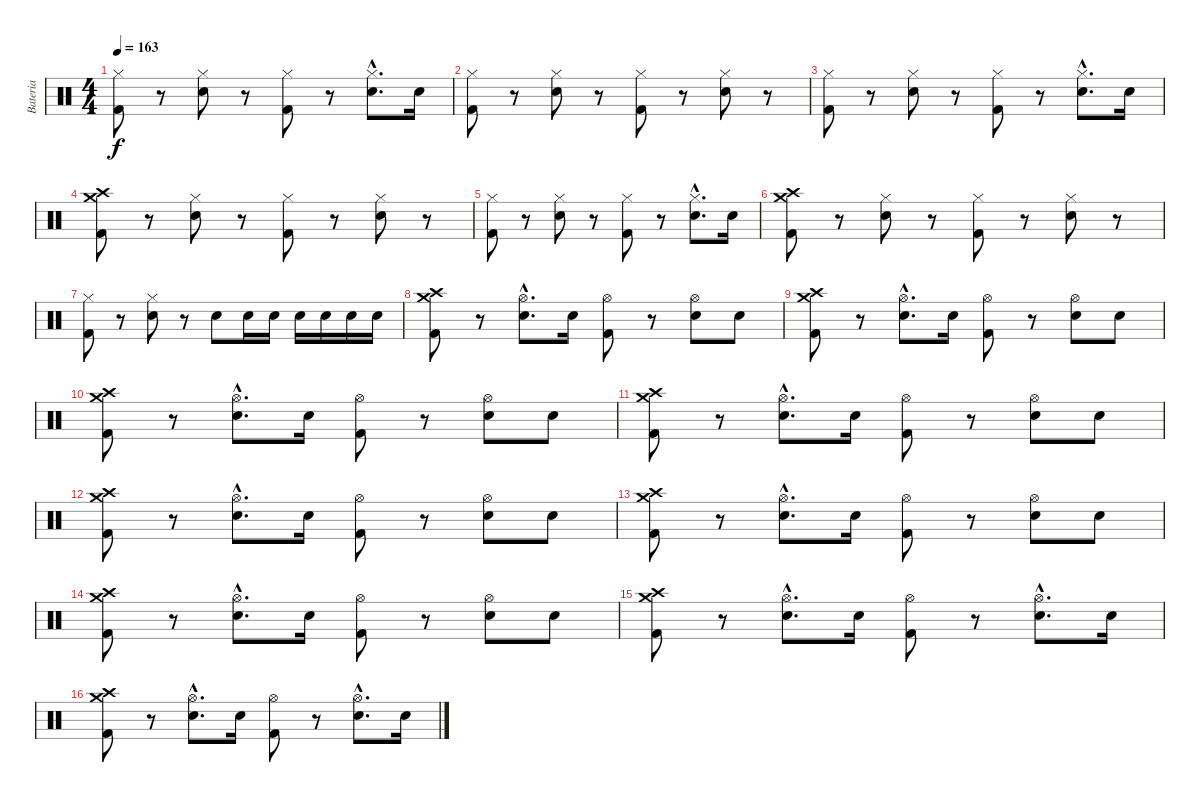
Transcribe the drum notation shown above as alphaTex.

\track ("Bateria" "Bateria") {instrument percussion}
\staff {score}
\articulation defaults
\ts (4 4)
\tempo 163
\clef neutral
\ks c
("Hi-Hat (closed)" "Kick (hit) 2").8{dy f} r.8 ("Hi-Hat (closed)" "Snare (hit) 2").8 r.8 ("Hi-Hat (closed)" "Kick (hit) 2").8 r.8 ("Hi-Hat (closed)"{hac} "Snare (hit) 2"{hac}).8{d} "Snare (hit) 2".16 |
("Hi-Hat (closed)" "Kick (hit) 2").8 r.8 ("Hi-Hat (closed)" "Snare (hit) 2").8 r.8 ("Hi-Hat (closed)" "Kick (hit) 2").8 r.8 ("Hi-Hat (closed)" "Snare (hit) 2").8 r.8 |
("Hi-Hat (closed)" "Kick (hit) 2").8 r.8 ("Hi-Hat (closed)" "Snare (hit) 2").8 r.8 ("Hi-Hat (closed)" "Kick (hit) 2").8 r.8 ("Hi-Hat (closed)"{hac} "Snare (hit) 2"{hac}).8{d} "Snare (hit) 2".16 |
("Crash high (hit)" "Crash medium (hit)" "Kick (hit) 2").8 r.8 ("Hi-Hat (closed)" "Snare (hit) 2").8 r.8 ("Hi-Hat (closed)" "Kick (hit) 2").8 r.8 ("Hi-Hat (closed)" "Snare (hit) 2").8 r.8 |
("Hi-Hat (closed)" "Kick (hit) 2").8 r.8 ("Hi-Hat (closed)" "Snare (hit) 2").8 r.8 ("Hi-Hat (closed)" "Kick (hit) 2").8 r.8 ("Hi-Hat (closed)"{hac} "Snare (hit) 2"{hac}).8{d} "Snare (hit) 2".16 |
("Crash high (hit)" "Crash medium (hit)" "Kick (hit) 2").8 r.8 ("Hi-Hat (closed)" "Snare (hit) 2").8 r.8 ("Hi-Hat (closed)" "Kick (hit) 2").8 r.8 ("Hi-Hat (closed)" "Snare (hit) 2").8 r.8 |
("Hi-Hat (closed)" "Kick (hit) 2").8 r.8 ("Hi-Hat (closed)" "Snare (hit) 2").8 r.8 "Snare (hit) 2".8 "Snare (hit) 2".16 "Snare (hit) 2".16 "Snare (hit) 2".16 "Snare (hit) 2".16 "Snare (hit) 2".16 "Snare (hit) 2".16 |
("Crash high (hit)" "Crash medium (hit)" "Kick (hit) 2").8 r.8 ("Hi-Hat (open)"{hac} "Snare (hit) 2"{hac}).8{d} "Snare (hit) 2".16 ("Hi-Hat (open)" "Kick (hit) 2").8 r.8 ("Hi-Hat (open)" "Snare (hit) 2").8 "Snare (hit) 2".8 |
("Crash high (hit)" "Crash medium (hit)" "Kick (hit) 2").8 r.8 ("Hi-Hat (open)"{hac} "Snare (hit) 2"{hac}).8{d} "Snare (hit) 2".16 ("Hi-Hat (open)" "Kick (hit) 2").8 r.8 ("Hi-Hat (open)" "Snare (hit) 2").8 "Snare (hit) 2".8 |
("Crash high (hit)" "Crash medium (hit)" "Kick (hit) 2").8 r.8 ("Hi-Hat (open)"{hac} "Snare (hit) 2"{hac}).8{d} "Snare (hit) 2".16 ("Hi-Hat (open)" "Kick (hit) 2").8 r.8 ("Hi-Hat (open)" "Snare (hit) 2").8 "Snare (hit) 2".8 |
("Crash high (hit)" "Crash medium (hit)" "Kick (hit) 2").8 r.8 ("Hi-Hat (open)"{hac} "Snare (hit) 2"{hac}).8{d} "Snare (hit) 2".16 ("Hi-Hat (open)" "Kick (hit) 2").8 r.8 ("Hi-Hat (open)" "Snare (hit) 2").8 "Snare (hit) 2".8 |
("Crash high (hit)" "Crash medium (hit)" "Kick (hit) 2").8 r.8 ("Hi-Hat (open)"{hac} "Snare (hit) 2"{hac}).8{d} "Snare (hit) 2".16 ("Hi-Hat (open)" "Kick (hit) 2").8 r.8 ("Hi-Hat (open)" "Snare (hit) 2").8 "Snare (hit) 2".8 |
("Crash high (hit)" "Crash medium (hit)" "Kick (hit) 2").8 r.8 ("Hi-Hat (open)"{hac} "Snare (hit) 2"{hac}).8{d} "Snare (hit) 2".16 ("Hi-Hat (open)" "Kick (hit) 2").8 r.8 ("Hi-Hat (open)" "Snare (hit) 2").8 "Snare (hit) 2".8 |
("Crash high (hit)" "Crash medium (hit)" "Kick (hit) 2").8 r.8 ("Hi-Hat (open)"{hac} "Snare (hit) 2"{hac}).8{d} "Snare (hit) 2".16 ("Hi-Hat (open)" "Kick (hit) 2").8 r.8 ("Hi-Hat (open)" "Snare (hit) 2").8 "Snare (hit) 2".8 |
("Crash high (hit)" "Crash medium (hit)" "Kick (hit) 2").8 r.8 ("Hi-Hat (open)"{hac} "Snare (hit) 2"{hac}).8{d} "Snare (hit) 2".16 ("Hi-Hat (open)" "Kick (hit) 2").8 r.8 ("Hi-Hat (open)"{hac} "Snare (hit) 2"{hac}).8{d} "Snare (hit) 2".16 |
("Crash high (hit)" "Crash medium (hit)" "Kick (hit) 2").8 r.8 ("Hi-Hat (open)"{hac} "Snare (hit) 2"{hac}).8{d} "Snare (hit) 2".16 ("Hi-Hat (open)" "Kick (hit) 2").8 r.8 ("Hi-Hat (open)"{hac} "Snare (hit) 2"{hac}).8{d} "Snare (hit) 2".16
